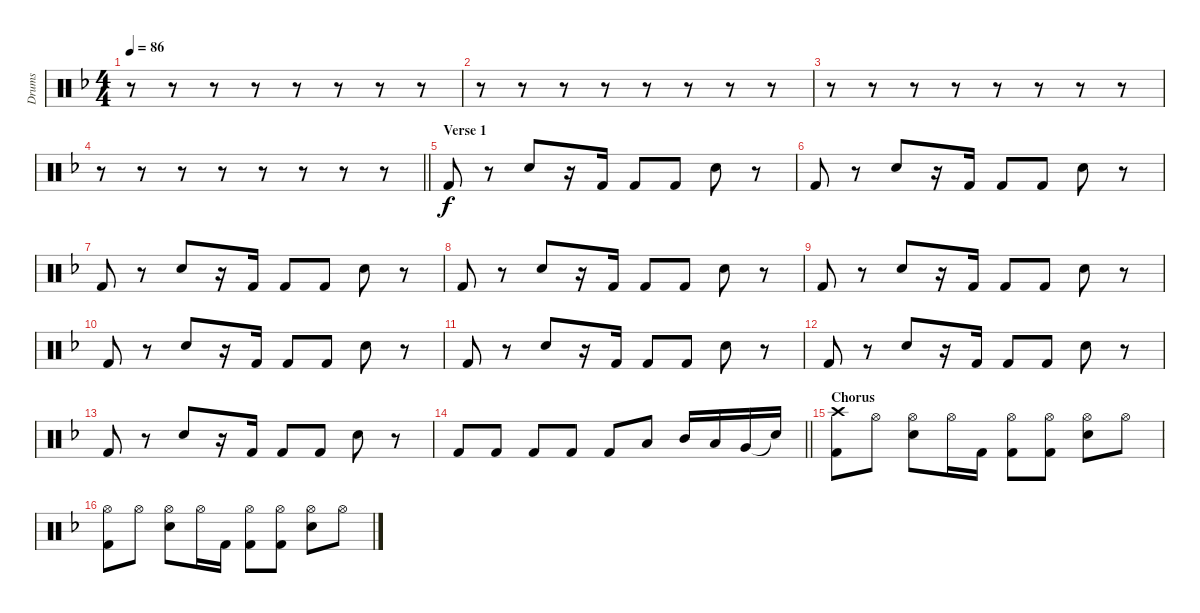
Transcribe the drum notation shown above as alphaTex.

\track ("Drums" "Drums") {instrument percussion}
\staff {score}
\articulation defaults
\ts (4 4)
\tempo 86
\clef neutral
\ks dminor
r.8{dy f} r.8 r.8 r.8 r.8 r.8 r.8 r.8 |
r.8 r.8 r.8 r.8 r.8 r.8 r.8 r.8 |
r.8 r.8 r.8 r.8 r.8 r.8 r.8 r.8 |
\barLineRight lightlight
r.8 r.8 r.8 r.8 r.8 r.8 r.8 r.8 |
\section ("" "Verse 1")
"Kick (hit) 2".8 r.8 "Snare (hit) 2".8 r.16 "Kick (hit) 2".16 "Kick (hit) 2".8 "Kick (hit) 2".8 "Snare (hit) 2".8 r.8 |
"Kick (hit) 2".8 r.8 "Snare (hit) 2".8 r.16 "Kick (hit) 2".16 "Kick (hit) 2".8 "Kick (hit) 2".8 "Snare (hit) 2".8 r.8 |
"Kick (hit) 2".8 r.8 "Snare (hit) 2".8 r.16 "Kick (hit) 2".16 "Kick (hit) 2".8 "Kick (hit) 2".8 "Snare (hit) 2".8 r.8 |
"Kick (hit) 2".8 r.8 "Snare (hit) 2".8 r.16 "Kick (hit) 2".16 "Kick (hit) 2".8 "Kick (hit) 2".8 "Snare (hit) 2".8 r.8 |
"Kick (hit) 2".8 r.8 "Snare (hit) 2".8 r.16 "Kick (hit) 2".16 "Kick (hit) 2".8 "Kick (hit) 2".8 "Snare (hit) 2".8 r.8 |
"Kick (hit) 2".8 r.8 "Snare (hit) 2".8 r.16 "Kick (hit) 2".16 "Kick (hit) 2".8 "Kick (hit) 2".8 "Snare (hit) 2".8 r.8 |
"Kick (hit) 2".8 r.8 "Snare (hit) 2".8 r.16 "Kick (hit) 2".16 "Kick (hit) 2".8 "Kick (hit) 2".8 "Snare (hit) 2".8 r.8 |
"Kick (hit) 2".8 r.8 "Snare (hit) 2".8 r.16 "Kick (hit) 2".16 "Kick (hit) 2".8 "Kick (hit) 2".8 "Snare (hit) 2".8 r.8 |
"Kick (hit) 2".8 r.8 "Snare (hit) 2".8 r.16 "Kick (hit) 2".16 "Kick (hit) 2".8 "Kick (hit) 2".8 "Snare (hit) 2".8 r.8 |
\barLineRight lightlight "Kick (hit) 2".8 "Kick (hit) 2".8 "Kick (hit) 2".8 "Kick (hit) 2".8 "Kick (hit) 2".8 "Low Tom (hit)".8 "Mid Tom (hit)".16 "Low Tom (hit)".16 "Very Low Tom (hit)".16 "Snare (hit)"{t}.16
|
\section ("" "Chorus")
("Crash high (hit)" "Kick (hit) 2").8 "Hi-Hat (open)".8 ("Hi-Hat (open)" "Snare (hit) 2").8 "Hi-Hat (open)".16 "Kick (hit) 2".16 ("Hi-Hat (open)" "Kick (hit) 2").8 ("Hi-Hat (open)" "Kick (hit) 2").8 ("Hi-Hat (open)" "Snare (hit) 2").8 "Hi-Hat (open)".8 |
("Hi-Hat (open)" "Kick (hit) 2").8 "Hi-Hat (open)".8 ("Hi-Hat (open)" "Snare (hit) 2").8 "Hi-Hat (open)".16 "Kick (hit) 2".16 ("Hi-Hat (open)" "Kick (hit) 2").8 ("Hi-Hat (open)" "Kick (hit) 2").8 ("Hi-Hat (open)" "Snare (hit) 2").8 "Hi-Hat (open)".8
